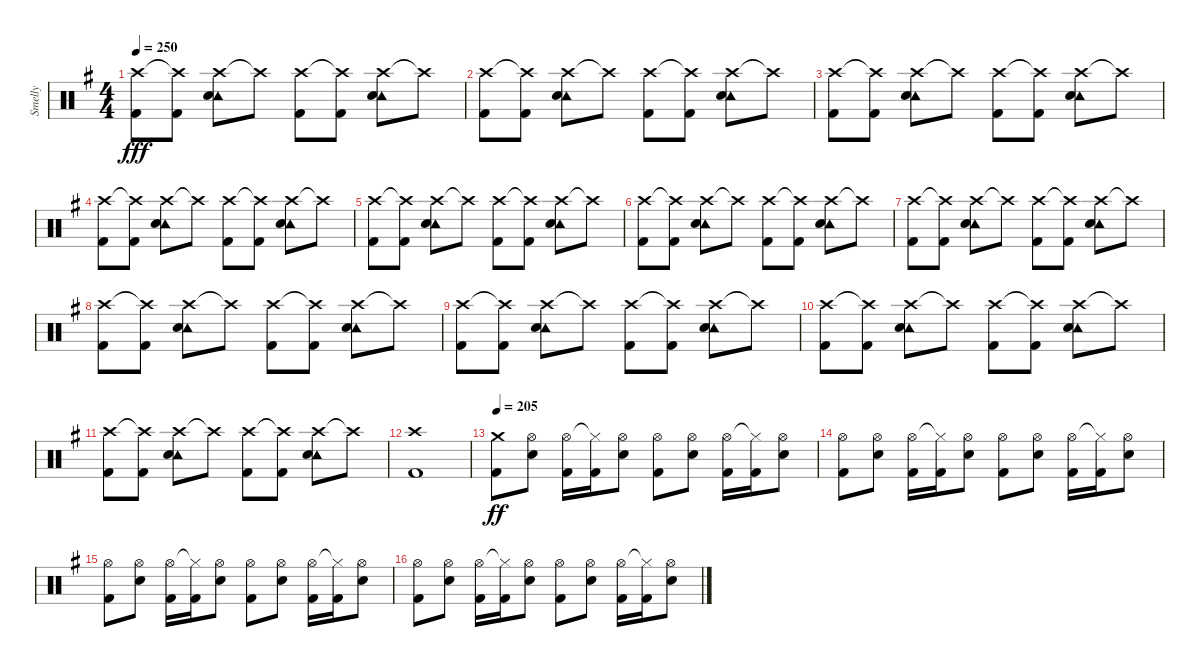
\track ("Smelly" "Smelly") {instrument percussion}
\staff {score}
\articulation defaults
\ts (4 4)
\tempo 250
\clef neutral
\ks eminor
("Crash high (hit)" "Kick (hit) 2").8{dy fff} ("Crash high (hit)"{t} "Kick (hit) 2").8 ("Crash high (hit)" "Tambourine (hit)" "Electric Snare (hit)").8 "Crash high (hit)"{t}.8 ("Crash high (hit)" "Kick (hit) 2").8 ("Crash high (hit)"{t} "Kick (hit) 2").8 ("Crash high (hit)" "Tambourine (hit)" "Electric Snare (hit)").8 "Crash high (hit)"{t}.8 |
("Crash high (hit)" "Kick (hit) 2").8 ("Crash high (hit)"{t} "Kick (hit) 2").8 ("Crash high (hit)" "Tambourine (hit)" "Electric Snare (hit)").8 "Crash high (hit)"{t}.8 ("Crash high (hit)" "Kick (hit) 2").8 ("Crash high (hit)"{t} "Kick (hit) 2").8 ("Crash high (hit)" "Tambourine (hit)" "Electric Snare (hit)").8 "Crash high (hit)"{t}.8 |
("Crash high (hit)" "Kick (hit) 2").8 ("Crash high (hit)"{t} "Kick (hit) 2").8 ("Crash high (hit)" "Tambourine (hit)" "Electric Snare (hit)").8 "Crash high (hit)"{t}.8 ("Crash high (hit)" "Kick (hit) 2").8 ("Crash high (hit)"{t} "Kick (hit) 2").8 ("Crash high (hit)" "Tambourine (hit)" "Electric Snare (hit)").8 "Crash high (hit)"{t}.8 |
("Crash high (hit)" "Kick (hit) 2").8 ("Crash high (hit)"{t} "Kick (hit) 2").8 ("Crash high (hit)" "Tambourine (hit)" "Electric Snare (hit)").8 "Crash high (hit)"{t}.8 ("Crash high (hit)" "Kick (hit) 2").8 ("Crash high (hit)"{t} "Kick (hit) 2").8 ("Crash high (hit)" "Tambourine (hit)" "Electric Snare (hit)").8 "Crash high (hit)"{t}.8 |
("Crash high (hit)" "Kick (hit) 2").8 ("Crash high (hit)"{t} "Kick (hit) 2").8 ("Crash high (hit)" "Tambourine (hit)" "Electric Snare (hit)").8 "Crash high (hit)"{t}.8 ("Crash high (hit)" "Kick (hit) 2").8 ("Crash high (hit)"{t} "Kick (hit) 2").8 ("Crash high (hit)" "Tambourine (hit)" "Electric Snare (hit)").8 "Crash high (hit)"{t}.8 |
("Crash high (hit)" "Kick (hit) 2").8 ("Crash high (hit)"{t} "Kick (hit) 2").8 ("Crash high (hit)" "Tambourine (hit)" "Electric Snare (hit)").8 "Crash high (hit)"{t}.8 ("Crash high (hit)" "Kick (hit) 2").8 ("Crash high (hit)"{t} "Kick (hit) 2").8 ("Crash high (hit)" "Tambourine (hit)" "Electric Snare (hit)").8 "Crash high (hit)"{t}.8 |
("Crash high (hit)" "Kick (hit) 2").8 ("Crash high (hit)"{t} "Kick (hit) 2").8 ("Crash high (hit)" "Tambourine (hit)" "Electric Snare (hit)").8 "Crash high (hit)"{t}.8 ("Crash high (hit)" "Kick (hit) 2").8 ("Crash high (hit)"{t} "Kick (hit) 2").8 ("Crash high (hit)" "Tambourine (hit)" "Electric Snare (hit)").8 "Crash high (hit)"{t}.8 |
("Crash high (hit)" "Kick (hit) 2").8 ("Crash high (hit)"{t} "Kick (hit) 2").8 ("Crash high (hit)" "Tambourine (hit)" "Electric Snare (hit)").8 "Crash high (hit)"{t}.8 ("Crash high (hit)" "Kick (hit) 2").8 ("Crash high (hit)"{t} "Kick (hit) 2").8 ("Crash high (hit)" "Tambourine (hit)" "Electric Snare (hit)").8 "Crash high (hit)"{t}.8 |
("Crash high (hit)" "Kick (hit) 2").8 ("Crash high (hit)"{t} "Kick (hit) 2").8 ("Crash high (hit)" "Tambourine (hit)" "Electric Snare (hit)").8 "Crash high (hit)"{t}.8 ("Crash high (hit)" "Kick (hit) 2").8 ("Crash high (hit)"{t} "Kick (hit) 2").8 ("Crash high (hit)" "Tambourine (hit)" "Electric Snare (hit)").8 "Crash high (hit)"{t}.8 |
("Crash high (hit)" "Kick (hit) 2").8 ("Crash high (hit)"{t} "Kick (hit) 2").8 ("Crash high (hit)" "Tambourine (hit)" "Electric Snare (hit)").8 "Crash high (hit)"{t}.8 ("Crash high (hit)" "Kick (hit) 2").8 ("Crash high (hit)"{t} "Kick (hit) 2").8 ("Crash high (hit)" "Tambourine (hit)" "Electric Snare (hit)").8 "Crash high (hit)"{t}.8 |
("Crash high (hit)" "Kick (hit) 2").8 ("Crash high (hit)"{t} "Kick (hit) 2").8 ("Crash high (hit)" "Tambourine (hit)" "Electric Snare (hit)").8 "Crash high (hit)"{t}.8 ("Crash high (hit)" "Kick (hit) 2").8 ("Crash high (hit)"{t} "Kick (hit) 2").8 ("Crash high (hit)" "Tambourine (hit)" "Electric Snare (hit)").8 "Crash high (hit)"{t}.8 |
("Crash high (hit)" "Kick (hit) 2").1 |
\tempo 205
("Crash medium (hit)" "Kick (hit) 2").8{dy ff} ("Hi-Hat (open)" "Electric Snare (hit)").8 ("Hi-Hat (open)" "Kick (hit) 2").16 ("Hi-Hat (closed)"{t} "Kick (hit) 2").16 ("Hi-Hat (open)" "Electric Snare (hit)").8 ("Hi-Hat (open)" "Kick (hit) 2").8 ("Hi-Hat (open)" "Electric Snare (hit)").8 ("Hi-Hat (open)" "Kick (hit) 2").16 ("Hi-Hat (closed)"{t} "Kick (hit) 2").16 ("Hi-Hat (open)" "Electric Snare (hit)").8 |
("Hi-Hat (open)" "Kick (hit) 2").8 ("Hi-Hat (open)" "Electric Snare (hit)").8 ("Hi-Hat (open)" "Kick (hit) 2").16 ("Hi-Hat (closed)"{t} "Kick (hit) 2").16 ("Hi-Hat (open)" "Electric Snare (hit)").8 ("Hi-Hat (open)" "Kick (hit) 2").8 ("Hi-Hat (open)" "Electric Snare (hit)").8 ("Hi-Hat (open)" "Kick (hit) 2").16 ("Hi-Hat (closed)"{t} "Kick (hit) 2").16 ("Hi-Hat (open)" "Electric Snare (hit)").8 |
("Hi-Hat (open)" "Kick (hit) 2").8 ("Hi-Hat (open)" "Electric Snare (hit)").8 ("Hi-Hat (open)" "Kick (hit) 2").16 ("Hi-Hat (closed)"{t} "Kick (hit) 2").16 ("Hi-Hat (open)" "Electric Snare (hit)").8 ("Hi-Hat (open)" "Kick (hit) 2").8 ("Hi-Hat (open)" "Electric Snare (hit)").8 ("Hi-Hat (open)" "Kick (hit) 2").16 ("Hi-Hat (closed)"{t} "Kick (hit) 2").16 ("Hi-Hat (open)" "Electric Snare (hit)").8 |
("Hi-Hat (open)" "Kick (hit) 2").8 ("Hi-Hat (open)" "Electric Snare (hit)").8 ("Hi-Hat (open)" "Kick (hit) 2").16 ("Hi-Hat (closed)"{t} "Kick (hit) 2").16 ("Hi-Hat (open)" "Electric Snare (hit)").8 ("Hi-Hat (open)" "Kick (hit) 2").8 ("Hi-Hat (open)" "Electric Snare (hit)").8 ("Hi-Hat (open)" "Kick (hit) 2").16 ("Hi-Hat (closed)"{t} "Kick (hit) 2").16 ("Hi-Hat (open)" "Electric Snare (hit)").8
